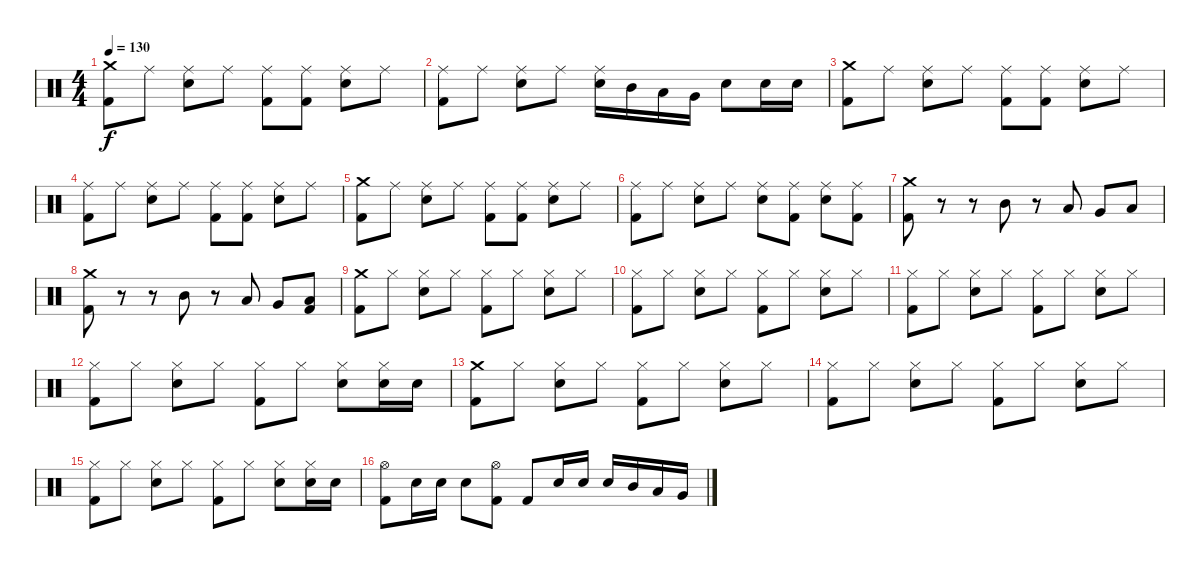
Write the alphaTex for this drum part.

\track "" {instrument percussion}
\staff {score}
\articulation defaults
\ts (4 4)
\tempo 130
\clef neutral
\ks c
("Crash medium (hit)" "Kick (hit) 2").8{dy f} "Ride (middle)".8 ("Ride (middle)" "Electric Snare (hit)").8 "Ride (middle)".8 ("Ride (middle)" "Kick (hit) 2").8 ("Ride (middle)" "Kick (hit) 2").8 ("Ride (middle)" "Electric Snare (hit)").8 "Ride (middle)".8 |
("Ride (middle)" "Kick (hit) 2").8 "Ride (middle)".8 ("Ride (middle)" "Electric Snare (hit)").8 "Ride (middle)".8 ("Ride (middle)" "Electric Snare (hit)").16 "Mid Tom (hit)".16 "Low Tom (hit)".16 "Very Low Tom (hit)".16 "Electric Snare (hit)".8 "Electric Snare (hit)".16 "Electric Snare (hit)".16 |
("Crash medium (hit)" "Kick (hit) 2").8 "Ride (middle)".8 ("Ride (middle)" "Electric Snare (hit)").8 "Ride (middle)".8 ("Ride (middle)" "Kick (hit) 2").8 ("Ride (middle)" "Kick (hit) 2").8 ("Ride (middle)" "Electric Snare (hit)").8 "Ride (middle)".8 |
("Ride (middle)" "Kick (hit) 2").8 "Ride (middle)".8 ("Ride (middle)" "Electric Snare (hit)").8 "Ride (middle)".8 ("Ride (middle)" "Kick (hit) 2").8 ("Ride (middle)" "Kick (hit) 2").8 ("Ride (middle)" "Electric Snare (hit)").8 "Ride (middle)".8 |
("Crash medium (hit)" "Kick (hit) 2").8 "Ride (middle)".8 ("Ride (middle)" "Electric Snare (hit)").8 "Ride (middle)".8 ("Ride (middle)" "Kick (hit) 2").8 ("Ride (middle)" "Kick (hit) 2").8 ("Ride (middle)" "Electric Snare (hit)").8 "Ride (middle)".8 |
("Ride (middle)" "Kick (hit) 2").8 "Ride (middle)".8 ("Ride (middle)" "Electric Snare (hit)").8 "Ride (middle)".8 ("Ride (middle)" "Electric Snare (hit)").8 ("Ride (middle)" "Kick (hit) 2").8 ("Ride (middle)" "Electric Snare (hit)").8 ("Ride (middle)" "Kick (hit) 2").8 |
("Crash medium (hit)" "Kick (hit) 2").8 r.8 r.8 "Mid Tom (hit)".8 r.8 "Low Tom (hit)".8 "Very Low Tom (hit)".8 "Low Floor Tom (hit)".8 |
("Crash medium (hit)" "Kick (hit) 2").8 r.8 r.8 "Mid Tom (hit)".8 r.8 "Low Tom (hit)".8 "Very Low Tom (hit)".8 ("Low Floor Tom (hit)" "Kick (hit) 2").8 |
("Crash medium (hit)" "Kick (hit) 2").8 "Hi-Hat (closed)".8 ("Hi-Hat (closed)" "Electric Snare (hit)").8 "Hi-Hat (closed)".8 ("Hi-Hat (closed)" "Kick (hit) 2").8 "Hi-Hat (closed)".8 ("Hi-Hat (closed)" "Electric Snare (hit)").8 "Hi-Hat (closed)".8 |
("Hi-Hat (closed)" "Kick (hit) 2").8 "Hi-Hat (closed)".8 ("Hi-Hat (closed)" "Electric Snare (hit)").8 "Hi-Hat (closed)".8 ("Hi-Hat (closed)" "Kick (hit) 2").8 "Hi-Hat (closed)".8 ("Hi-Hat (closed)" "Electric Snare (hit)").8 "Hi-Hat (closed)".8 |
("Hi-Hat (closed)" "Kick (hit) 2").8 "Hi-Hat (closed)".8 ("Hi-Hat (closed)" "Electric Snare (hit)").8 "Hi-Hat (closed)".8 ("Hi-Hat (closed)" "Kick (hit) 2").8 "Hi-Hat (closed)".8 ("Hi-Hat (closed)" "Electric Snare (hit)").8 "Hi-Hat (closed)".8 |
("Hi-Hat (closed)" "Kick (hit) 2").8 "Hi-Hat (closed)".8 ("Hi-Hat (closed)" "Electric Snare (hit)").8 "Hi-Hat (closed)".8 ("Hi-Hat (closed)" "Kick (hit) 2").8 "Hi-Hat (closed)".8 ("Hi-Hat (closed)" "Electric Snare (hit)").8 ("Hi-Hat (closed)" "Electric Snare (hit)").16 "Electric Snare (hit)".16 |
("Crash medium (hit)" "Kick (hit) 2").8 "Hi-Hat (closed)".8 ("Hi-Hat (closed)" "Electric Snare (hit)").8 "Hi-Hat (closed)".8 ("Hi-Hat (closed)" "Kick (hit) 2").8 "Hi-Hat (closed)".8 ("Hi-Hat (closed)" "Electric Snare (hit)").8 "Hi-Hat (closed)".8 |
("Hi-Hat (closed)" "Kick (hit) 2").8 "Hi-Hat (closed)".8 ("Hi-Hat (closed)" "Electric Snare (hit)").8 "Hi-Hat (closed)".8 ("Hi-Hat (closed)" "Kick (hit) 2").8 "Hi-Hat (closed)".8 ("Hi-Hat (closed)" "Electric Snare (hit)").8 "Hi-Hat (closed)".8 |
("Hi-Hat (closed)" "Kick (hit) 2").8 "Hi-Hat (closed)".8 ("Hi-Hat (closed)" "Electric Snare (hit)").8 "Hi-Hat (closed)".8 ("Hi-Hat (closed)" "Kick (hit) 2").8 "Hi-Hat (closed)".8 ("Hi-Hat (closed)" "Electric Snare (hit)").8 ("Hi-Hat (closed)" "Electric Snare (hit)").16 "Electric Snare (hit)".16 |
("Hi-Hat (open)" "Kick (hit) 2").8 "Electric Snare (hit)".16 "Electric Snare (hit)".16 "Electric Snare (hit)".8 ("Hi-Hat (open)" "Kick (hit) 2").8 "Kick (hit) 2".8 "Electric Snare (hit)".16 "Electric Snare (hit)".16 "Electric Snare (hit)".16 "Mid Tom (hit)".16 "Low Tom (hit)".16 "Very Low Tom (hit)".16
